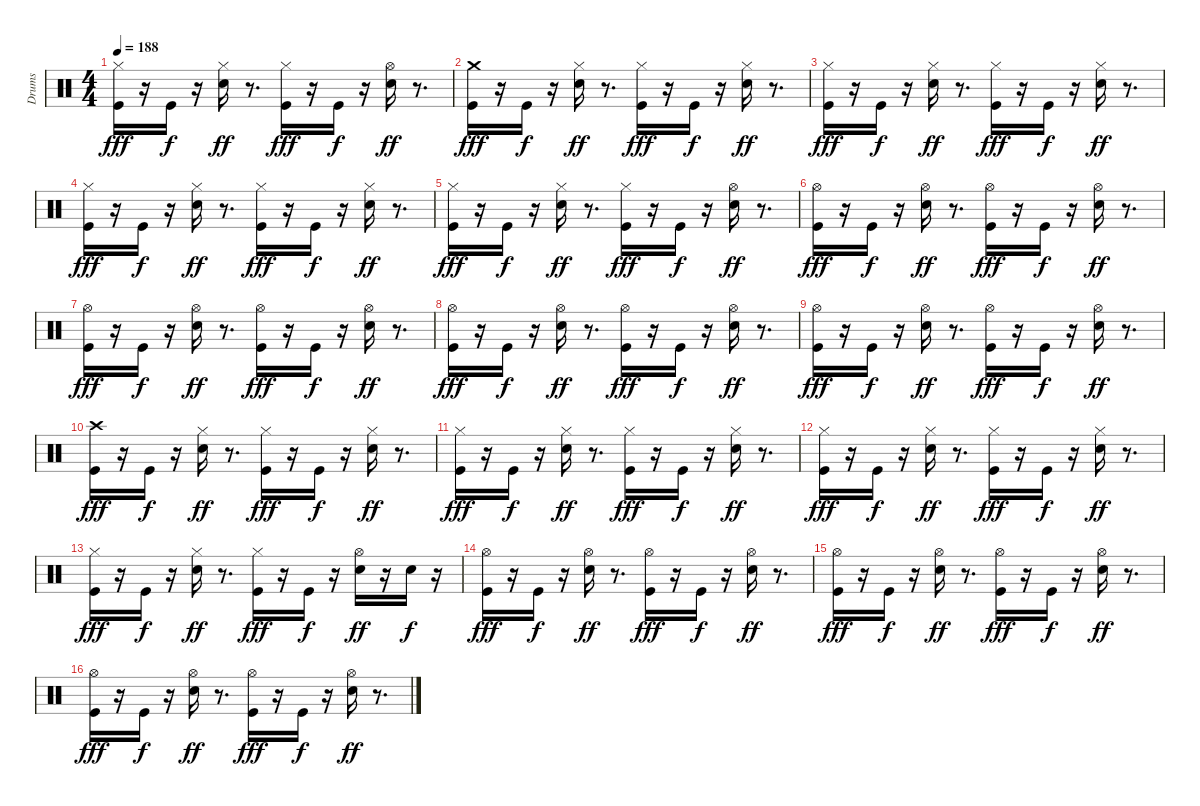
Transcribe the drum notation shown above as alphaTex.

\track ("Drums" "Drums") {instrument percussion}
\staff {score}
\articulation defaults
\ts (4 4)
\tempo 188
\clef neutral
\ks c
("Hi-Hat (closed)" "Kick (hit)").16{dy fff} r.16 "Kick (hit)".16{dy f} r.16 ("Electric Snare (hit)" "Hi-Hat (closed)").16{dy ff} r.8{d} ("Hi-Hat (closed)" "Kick (hit)").16{dy fff} r.16 "Kick (hit)".16{dy f} r.16 ("Electric Snare (hit)" "Hi-Hat (open)").16{dy ff} r.8{d} |
("Crash medium (hit)" "Kick (hit)").16{dy fff} r.16 "Kick (hit)".16{dy f} r.16 ("Electric Snare (hit)" "Hi-Hat (closed)").16{dy ff} r.8{d} ("Hi-Hat (closed)" "Kick (hit)").16{dy fff} r.16 "Kick (hit)".16{dy f} r.16 ("Electric Snare (hit)" "Hi-Hat (closed)").16{dy ff} r.8{d} |
("Hi-Hat (closed)" "Kick (hit)").16{dy fff} r.16 "Kick (hit)".16{dy f} r.16 ("Electric Snare (hit)" "Hi-Hat (closed)").16{dy ff} r.8{d} ("Hi-Hat (closed)" "Kick (hit)").16{dy fff} r.16 "Kick (hit)".16{dy f} r.16 ("Electric Snare (hit)" "Hi-Hat (closed)").16{dy ff} r.8{d} |
("Hi-Hat (closed)" "Kick (hit)").16{dy fff} r.16 "Kick (hit)".16{dy f} r.16 ("Electric Snare (hit)" "Hi-Hat (closed)").16{dy ff} r.8{d} ("Hi-Hat (closed)" "Kick (hit)").16{dy fff} r.16 "Kick (hit)".16{dy f} r.16 ("Electric Snare (hit)" "Hi-Hat (closed)").16{dy ff} r.8{d} |
("Hi-Hat (closed)" "Kick (hit)").16{dy fff} r.16 "Kick (hit)".16{dy f} r.16 ("Electric Snare (hit)" "Hi-Hat (closed)").16{dy ff} r.8{d} ("Hi-Hat (closed)" "Kick (hit)").16{dy fff} r.16 "Kick (hit)".16{dy f} r.16 ("Electric Snare (hit)" "Hi-Hat (open)").16{dy ff} r.8{d} |
("Hi-Hat (open)" "Kick (hit)").16{dy fff} r.16 "Kick (hit)".16{dy f} r.16 ("Hi-Hat (open)" "Electric Snare (hit)").16{dy ff} r.8{d} ("Hi-Hat (open)" "Kick (hit)").16{dy fff} r.16 "Kick (hit)".16{dy f} r.16 ("Hi-Hat (open)" "Electric Snare (hit)").16{dy ff} r.8{d} |
("Hi-Hat (open)" "Kick (hit)").16{dy fff} r.16 "Kick (hit)".16{dy f} r.16 ("Hi-Hat (open)" "Electric Snare (hit)").16{dy ff} r.8{d} ("Hi-Hat (open)" "Kick (hit)").16{dy fff} r.16 "Kick (hit)".16{dy f} r.16 ("Hi-Hat (open)" "Electric Snare (hit)").16{dy ff} r.8{d} |
("Hi-Hat (open)" "Kick (hit)").16{dy fff} r.16 "Kick (hit)".16{dy f} r.16 ("Hi-Hat (open)" "Electric Snare (hit)").16{dy ff} r.8{d} ("Hi-Hat (open)" "Kick (hit)").16{dy fff} r.16 "Kick (hit)".16{dy f} r.16 ("Hi-Hat (open)" "Electric Snare (hit)").16{dy ff} r.8{d} |
("Hi-Hat (open)" "Kick (hit)").16{dy fff} r.16 "Kick (hit)".16{dy f} r.16 ("Hi-Hat (open)" "Electric Snare (hit)").16{dy ff} r.8{d} ("Hi-Hat (open)" "Kick (hit)").16{dy fff} r.16 "Kick (hit)".16{dy f} r.16 ("Electric Snare (hit)" "Hi-Hat (open)").16{dy ff} r.8{d} |
("Crash high (hit)" "Kick (hit)").16{dy fff} r.16 "Kick (hit)".16{dy f} r.16 ("Electric Snare (hit)" "Hi-Hat (closed)").16{dy ff} r.8{d} ("Hi-Hat (closed)" "Kick (hit)").16{dy fff} r.16 "Kick (hit)".16{dy f} r.16 ("Electric Snare (hit)" "Hi-Hat (closed)").16{dy ff} r.8{d} |
("Hi-Hat (closed)" "Kick (hit)").16{dy fff} r.16 "Kick (hit)".16{dy f} r.16 ("Electric Snare (hit)" "Hi-Hat (closed)").16{dy ff} r.8{d} ("Hi-Hat (closed)" "Kick (hit)").16{dy fff} r.16 "Kick (hit)".16{dy f} r.16 ("Electric Snare (hit)" "Hi-Hat (closed)").16{dy ff} r.8{d} |
("Hi-Hat (closed)" "Kick (hit)").16{dy fff} r.16 "Kick (hit)".16{dy f} r.16 ("Electric Snare (hit)" "Hi-Hat (closed)").16{dy ff} r.8{d} ("Hi-Hat (closed)" "Kick (hit)").16{dy fff} r.16 "Kick (hit)".16{dy f} r.16 ("Electric Snare (hit)" "Hi-Hat (closed)").16{dy ff} r.8{d} |
("Hi-Hat (closed)" "Kick (hit)").16{dy fff} r.16 "Kick (hit)".16{dy f} r.16 ("Electric Snare (hit)" "Hi-Hat (closed)").16{dy ff} r.8{d} ("Hi-Hat (closed)" "Kick (hit)").16{dy fff} r.16 "Kick (hit)".16{dy f} r.16 ("Electric Snare (hit)" "Hi-Hat (open)").16{dy ff} r.16 "Electric Snare (hit)".16{dy f} r.16 |
("Hi-Hat (open)" "Kick (hit)").16{dy fff} r.16 "Kick (hit)".16{dy f} r.16 ("Hi-Hat (open)" "Electric Snare (hit)").16{dy ff} r.8{d} ("Hi-Hat (open)" "Kick (hit)").16{dy fff} r.16 "Kick (hit)".16{dy f} r.16 ("Hi-Hat (open)" "Electric Snare (hit)").16{dy ff} r.8{d} |
("Hi-Hat (open)" "Kick (hit)").16{dy fff} r.16 "Kick (hit)".16{dy f} r.16 ("Hi-Hat (open)" "Electric Snare (hit)").16{dy ff} r.8{d} ("Hi-Hat (open)" "Kick (hit)").16{dy fff} r.16 "Kick (hit)".16{dy f} r.16 ("Hi-Hat (open)" "Electric Snare (hit)").16{dy ff} r.8{d} |
("Hi-Hat (open)" "Kick (hit)").16{dy fff} r.16 "Kick (hit)".16{dy f} r.16 ("Hi-Hat (open)" "Electric Snare (hit)").16{dy ff} r.8{d} ("Hi-Hat (open)" "Kick (hit)").16{dy fff} r.16 "Kick (hit)".16{dy f} r.16 ("Hi-Hat (open)" "Electric Snare (hit)").16{dy ff} r.8{d}
